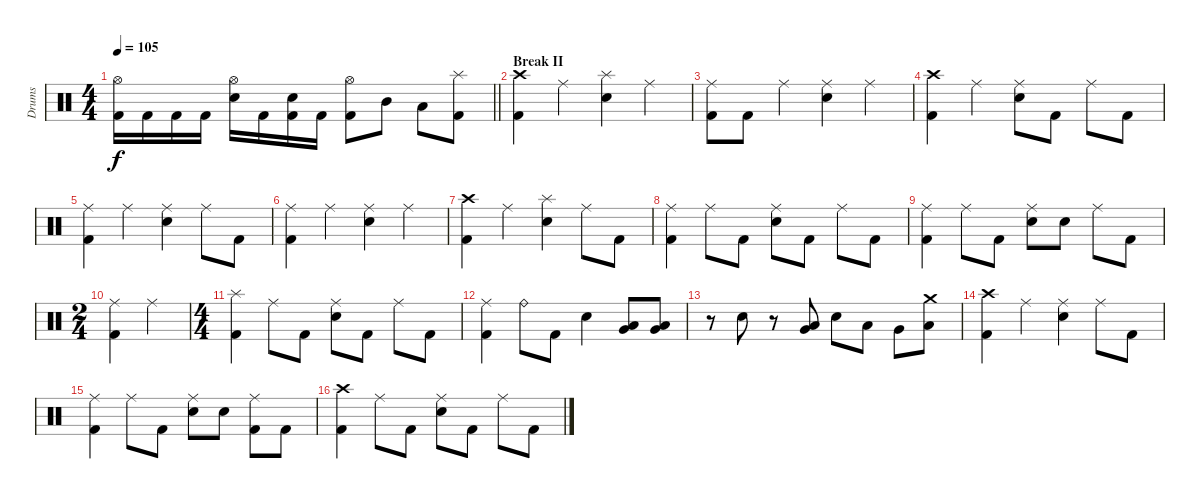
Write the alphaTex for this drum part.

\track ("Drums" "Drums") {instrument percussion}
\staff {score}
\articulation defaults
\ts (4 4)
\tempo 105
\clef neutral
\barLineRight lightlight
\ks c
("Hi-Hat (open)" "Kick (hit) 2").16{dy f} "Kick (hit) 2".16 "Kick (hit) 2".16 "Kick (hit) 2".16 ("Hi-Hat (open)" "Electric Snare (hit)").16 "Kick (hit) 2".16 ("Electric Snare (hit)" "Kick (hit) 2").16 "Kick (hit) 2".16 ("Hi-Hat (open)" "Kick (hit) 2").8 "Mid Tom (hit)".8 "Low Tom (hit)".8 ("Splash (hit)" "Kick (hit) 2").8 |
\section ("" "Break II")
("Crash high (hit)" "Kick (hit) 2").4 "Ride (middle)".4 ("Splash (hit)" "Electric Snare (hit)").4 "Ride (middle)".4 |
("Ride (middle)" "Kick (hit) 2").8 "Kick (hit) 2".8 "Ride (middle)".4 ("Ride (middle)" "Electric Snare (hit)").4 "Ride (middle)".4 |
("Crash high (hit)" "Kick (hit) 2").4 "Ride (middle)".4 ("Ride (middle)" "Electric Snare (hit)").8 "Kick (hit) 2".8 "Ride (middle)".8 "Kick (hit) 2".8 |
("Ride (middle)" "Kick (hit) 2").4 "Ride (middle)".4 ("Ride (middle)" "Electric Snare (hit)").4 "Ride (middle)".8 "Kick (hit) 2".8 |
("Ride (middle)" "Kick (hit) 2").4 "Ride (middle)".4 ("Ride (middle)" "Electric Snare (hit)").4 "Ride (middle)".4 |
("Crash high (hit)" "Kick (hit) 2").4 "Ride (middle)".4 ("Splash (hit)" "Electric Snare (hit)").4 "Ride (middle)".8 "Kick (hit) 2".8 |
("Ride (middle)" "Kick (hit) 2").4 "Ride (middle)".8 "Kick (hit) 2".8 ("Ride (middle)" "Electric Snare (hit)").8 "Kick (hit) 2".8 "Ride (middle)".8 "Kick (hit) 2".8 |
("Ride (middle)" "Kick (hit) 2").4 "Ride (middle)".8 "Kick (hit) 2".8 ("Ride (middle)" "Electric Snare (hit)").8 "Electric Snare (hit)".8 "Ride (middle)".8 "Kick (hit) 2".8 |
\ts (2 4)
("Ride (middle)" "Kick (hit) 2").4 "Ride (middle)".4 |
\ts (4 4)
("Splash (hit)" "Kick (hit) 2").4 "Ride (middle)".8 "Kick (hit) 2".8 ("Ride (middle)" "Electric Snare (hit)").8 "Kick (hit) 2".8 "Ride (middle)".8 "Kick (hit) 2".8 |
("Ride (middle)" "Kick (hit) 2").4 "Ride (bell)".8 "Kick (hit) 2".8 "Electric Snare (hit)".4 ("Very Low Tom (hit)" "Low Floor Tom (hit)").8 ("Very Low Tom (hit)" "Low Floor Tom (hit)").8 |
r.8 "Electric Snare (hit)".8 r.8 ("Very Low Tom (hit)" "Low Floor Tom (hit)").8 "Electric Snare (hit)".8 "Low Tom (hit)".8 "Very Low Tom (hit)".8 ("Crash medium (hit)" "Low Floor Tom (hit)").8 |
("Crash high (hit)" "Kick (hit) 2").4 "Ride (middle)".4 ("Ride (middle)" "Electric Snare (hit)").4 "Ride (middle)".8 "Kick (hit) 2".8 |
("Ride (middle)" "Kick (hit) 2").4 "Ride (middle)".8 "Kick (hit) 2".8 ("Ride (middle)" "Electric Snare (hit)").8 "Electric Snare (hit)".8 ("Ride (middle)" "Kick (hit) 2").8 "Kick (hit) 2".8 |
("Crash high (hit)" "Kick (hit) 2").4 "Ride (middle)".8 "Kick (hit) 2".8 ("Ride (middle)" "Electric Snare (hit)").8 "Kick (hit) 2".8 "Ride (middle)".8 "Kick (hit) 2".8
